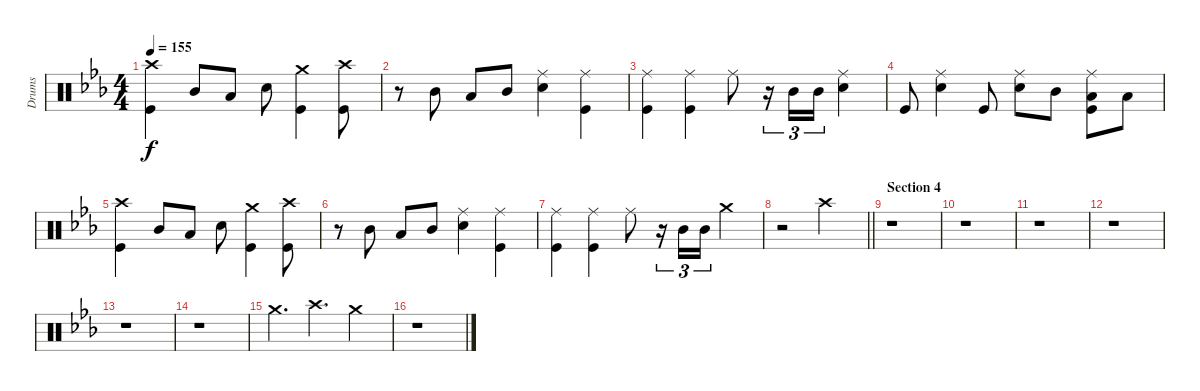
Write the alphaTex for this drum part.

\track ("Drums" "Drums") {instrument percussion}
\staff {score}
\articulation defaults
\ts (4 4)
\tempo 155
\clef neutral
\ks eb
("Crash high (hit)" "Kick (hit)").4{dy f} "Mid Tom (hit)".8 "Low Tom (hit)".8 "Snare (hit) 2".8 ("Crash medium (hit)" "Kick (hit)").4 ("Crash high (hit)" "Kick (hit)").8 |
r.8 "Mid Tom (hit)".8 "Low Tom (hit)".8 "Mid Tom (hit)".8 ("Ride (middle)" "Snare (hit) 2").4 ("Ride (middle)" "Kick (hit)").4 |
("Ride (middle)" "Kick (hit)").4 ("Ride (middle)" "Kick (hit)").4 "Ride (middle)".8 r.16{tu (3 2)} "Mid Tom (hit)".16{tu (3 2)} "Mid Tom (hit)".16{tu (3 2)} ("Ride (middle)" "Snare (hit) 2").4 |
"Kick (hit)".8 ("Ride (middle)" "Snare (hit) 2").4 "Kick (hit)".8 ("Ride (middle)" "Snare (hit) 2").8 "Mid Tom (hit)".8 ("Ride (middle)" "Low Tom (hit)" "Kick (hit)").8 "Low Tom (hit)".8 |
("Crash high (hit)" "Kick (hit)").4 "Mid Tom (hit)".8 "Low Tom (hit)".8 "Snare (hit) 2".8 ("Crash medium (hit)" "Kick (hit)").4 ("Crash high (hit)" "Kick (hit)").8 |
r.8 "Mid Tom (hit)".8 "Low Tom (hit)".8 "Mid Tom (hit)".8 ("Ride (middle)" "Snare (hit) 2").4 ("Ride (middle)" "Kick (hit)").4 |
("Ride (middle)" "Kick (hit)").4 ("Ride (middle)" "Kick (hit)").4 "Ride (middle)".8 r.16{tu (3 2)} "Mid Tom (hit)".16{tu (3 2)} "Mid Tom (hit)".16{tu (3 2)} "Crash medium (hit)".4 |
\barLineRight lightlight
r.2 "Crash high (hit)".2 |
\section ("" "Section 4")
r.1 |
r.1 |
r.1 |
r.1 |
r.1 |
r.1 |
"Crash medium (hit)".4{d} "Crash high (hit)".4{d} "Crash medium (hit)".4 |
r.1
